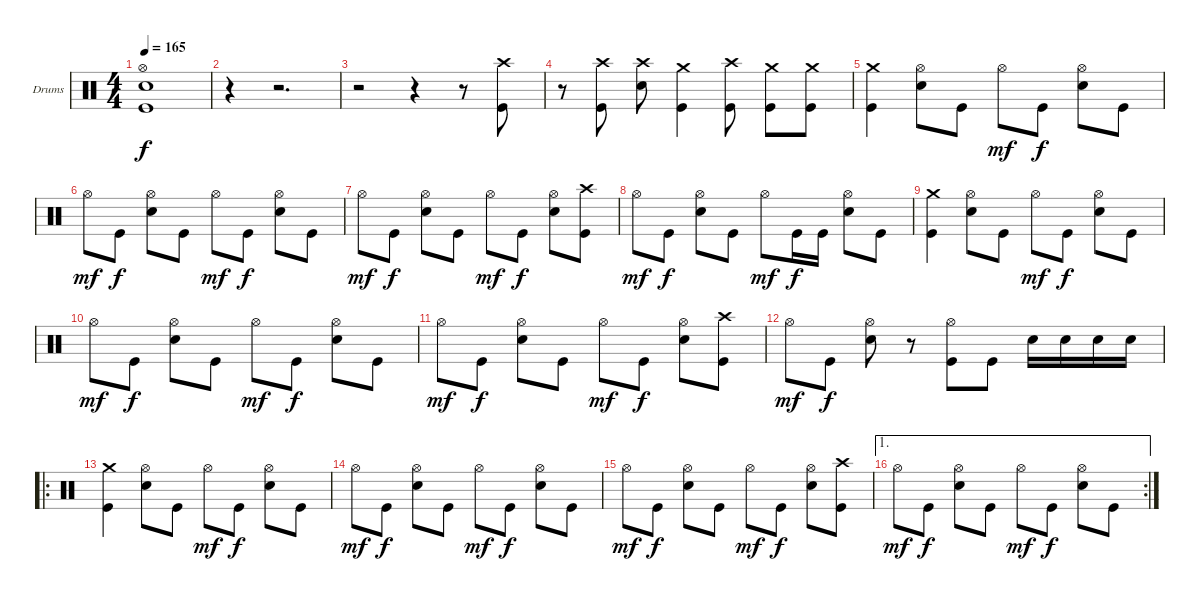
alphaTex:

\bracketExtendMode groupsimilarinstruments
\firstSystemTrackNameOrientation horizontal
\otherSystemsTrackNameOrientation horizontal
\track ("Drumkit" "Drums") {instrument percussion}
\staff {score}
\articulation defaults
\ts (4 4)
\beaming (8 2 2 2 2)
\tempo 165
\clef neutral
\ks c
("Kick (hit)" "Snare (hit) 2" "Hi-Hat (open)").1{dy f} |
r.4 r.2{d} |
r.2 r.4 r.8 ("Kick (hit)" "Crash high (hit)").8 |
r.8 ("Kick (hit)" "Crash high (hit)").8 ("Snare (hit) 2" "Crash high (hit)").8 ("Kick (hit)" "Crash medium (hit)").4 ("Kick (hit)" "Crash high (hit)").8 ("Kick (hit)" "Crash medium (hit)").8 ("Kick (hit)" "Crash medium (hit)").8 |
("Kick (hit)" "Crash medium (hit)").4 ("Snare (hit) 2" "Hi-Hat (open)").8 "Kick (hit)".8 "Hi-Hat (open)".8{dy mf} "Kick (hit)".8{dy f} ("Snare (hit) 2" "Hi-Hat (open)").8 "Kick (hit)".8 |
"Hi-Hat (open)".8{dy mf} "Kick (hit)".8{dy f} ("Snare (hit) 2" "Hi-Hat (open)").8 "Kick (hit)".8 "Hi-Hat (open)".8{dy mf} "Kick (hit)".8{dy f} ("Snare (hit) 2" "Hi-Hat (open)").8 "Kick (hit)".8 |
"Hi-Hat (open)".8{dy mf} "Kick (hit)".8{dy f} ("Snare (hit) 2" "Hi-Hat (open)").8 "Kick (hit)".8 "Hi-Hat (open)".8{dy mf} "Kick (hit)".8{dy f} ("Snare (hit) 2" "Hi-Hat (open)").8 ("Kick (hit)" "Crash high (hit)").8 |
"Hi-Hat (open)".8{dy mf} "Kick (hit)".8{dy f} ("Snare (hit) 2" "Hi-Hat (open)").8 "Kick (hit)".8 "Hi-Hat (open)".8{dy mf} "Kick (hit)".16{dy f} "Kick (hit)".16 ("Snare (hit) 2" "Hi-Hat (open)").8 "Kick (hit)".8 |
("Kick (hit)" "Crash medium (hit)").4 ("Snare (hit) 2" "Hi-Hat (open)").8 "Kick (hit)".8 "Hi-Hat (open)".8{dy mf} "Kick (hit)".8{dy f} ("Snare (hit) 2" "Hi-Hat (open)").8 "Kick (hit)".8 |
"Hi-Hat (open)".8{dy mf} "Kick (hit)".8{dy f} ("Snare (hit) 2" "Hi-Hat (open)").8 "Kick (hit)".8 "Hi-Hat (open)".8{dy mf} "Kick (hit)".8{dy f} ("Snare (hit) 2" "Hi-Hat (open)").8 "Kick (hit)".8 |
"Hi-Hat (open)".8{dy mf} "Kick (hit)".8{dy f} ("Snare (hit) 2" "Hi-Hat (open)").8 "Kick (hit)".8 "Hi-Hat (open)".8{dy mf} "Kick (hit)".8{dy f} ("Snare (hit) 2" "Hi-Hat (open)").8 ("Kick (hit)" "Crash high (hit)").8 |
"Hi-Hat (open)".8{dy mf} "Kick (hit)".8{dy f} ("Snare (hit) 2" "Hi-Hat (open)").8 r.8 ("Kick (hit)" "Hi-Hat (open)").8 "Kick (hit)".8 "Snare (hit) 2".16 "Snare (hit) 2".16 "Snare (hit) 2".16 "Snare (hit) 2".16 |
\ro
("Kick (hit)" "Crash medium (hit)").4 ("Snare (hit) 2" "Hi-Hat (open)").8 "Kick (hit)".8 "Hi-Hat (open)".8{dy mf} "Kick (hit)".8{dy f} ("Snare (hit) 2" "Hi-Hat (open)").8 "Kick (hit)".8 |
"Hi-Hat (open)".8{dy mf} "Kick (hit)".8{dy f} ("Snare (hit) 2" "Hi-Hat (open)").8 "Kick (hit)".8 "Hi-Hat (open)".8{dy mf} "Kick (hit)".8{dy f} ("Snare (hit) 2" "Hi-Hat (open)").8 "Kick (hit)".8 |
"Hi-Hat (open)".8{dy mf} "Kick (hit)".8{dy f} ("Snare (hit) 2" "Hi-Hat (open)").8 "Kick (hit)".8 "Hi-Hat (open)".8{dy mf} "Kick (hit)".8{dy f} ("Snare (hit) 2" "Hi-Hat (open)").8 ("Kick (hit)" "Crash high (hit)").8 |
\ae 1
\rc 2 "Hi-Hat (open)".8{dy mf} "Kick (hit)".8{dy f}
("Snare (hit) 2" "Hi-Hat (open)").8 "Kick (hit)".8 "Hi-Hat (open)".8{dy mf} "Kick (hit)".8{dy f} ("Snare (hit) 2" "Hi-Hat (open)").8 "Kick (hit)".8
